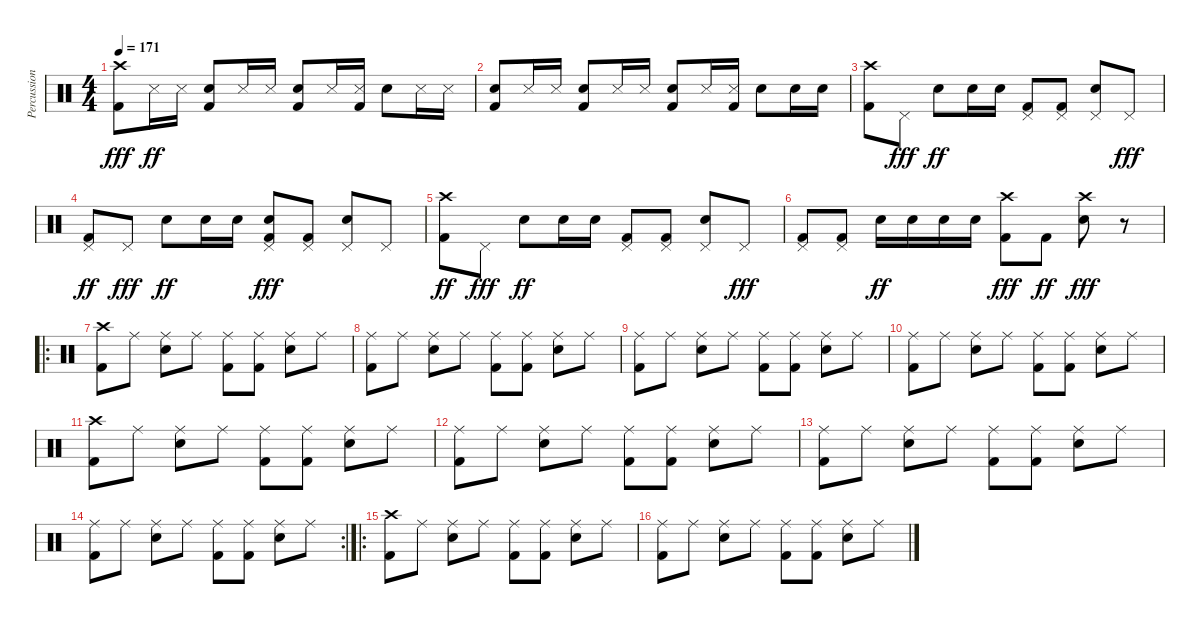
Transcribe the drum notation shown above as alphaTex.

\track ("Percussion" "Percussion") {instrument percussion}
\staff {score}
\articulation defaults
\ts (4 4)
\tempo 171
\clef neutral
\ks c
("Kick (hit) 2" "Crash high (hit)").8{dy fff} "Metronome (hit)".16{dy ff} "Metronome (hit)".16 ("Kick (hit) 2" "Snare (hit) 2").8 "Metronome (hit)".16 "Metronome (hit)".16 ("Kick (hit) 2" "Snare (hit) 2").8 "Metronome (hit)".16 ("Kick (hit) 2" "Metronome (hit)").16 "Snare (hit) 2".8 "Metronome (hit)".16 "Metronome (hit)".16 |
("Kick (hit) 2" "Snare (hit) 2").8 "Metronome (hit)".16 "Metronome (hit)".16 ("Kick (hit) 2" "Snare (hit) 2").8 "Metronome (hit)".16 "Metronome (hit)".16 ("Kick (hit) 2" "Snare (hit) 2").8 "Metronome (hit)".16 ("Kick (hit) 2" "Metronome (hit)").16 "Snare (hit) 2".8 "Snare (hit) 2".16 "Snare (hit) 2".16 |
("Crash high (hit)" "Kick (hit) 2").8 "Pedal Hi-Hat (hit)".8{dy fff} "Snare (hit) 2".8{dy ff} "Snare (hit) 2".16 "Snare (hit) 2".16 ("Pedal Hi-Hat (hit)" "Kick (hit) 2").8 ("Pedal Hi-Hat (hit)" "Kick (hit) 2").8 ("Pedal Hi-Hat (hit)" "Snare (hit) 2").8 "Pedal Hi-Hat (hit)".8{dy fff} |
("Pedal Hi-Hat (hit)" "Kick (hit) 2").8{dy ff} "Pedal Hi-Hat (hit)".8{dy fff} "Snare (hit) 2".8{dy ff} "Snare (hit) 2".16 "Snare (hit) 2".16 ("Snare (hit) 2" "Kick (hit) 2" "Pedal Hi-Hat (hit)").8{dy fff} ("Kick (hit) 2" "Pedal Hi-Hat (hit)").8 ("Snare (hit) 2" "Pedal Hi-Hat (hit)").8 "Pedal Hi-Hat (hit)".8 |
("Crash high (hit)" "Kick (hit) 2").8{dy ff} "Pedal Hi-Hat (hit)".8{dy fff} "Snare (hit) 2".8{dy ff} "Snare (hit) 2".16 "Snare (hit) 2".16 ("Pedal Hi-Hat (hit)" "Kick (hit) 2").8 ("Pedal Hi-Hat (hit)" "Kick (hit) 2").8 ("Pedal Hi-Hat (hit)" "Snare (hit) 2").8 "Pedal Hi-Hat (hit)".8{dy fff} |
("Kick (hit) 2" "Pedal Hi-Hat (hit)").8 ("Kick (hit) 2" "Pedal Hi-Hat (hit)").8 "Snare (hit) 2".16{dy ff} "Snare (hit) 2".16 "Snare (hit) 2".16 "Snare (hit) 2".16 ("Kick (hit) 2" "Crash high (hit)").8{dy fff} "Kick (hit) 2".8{dy ff} ("Snare (hit) 2" "Crash high (hit)").8{dy fff} r.8 |
\ro
("Kick (hit) 2" "Crash high (hit)").8 "Ride (middle)".8 ("Snare (hit) 2" "Ride (middle)").8 "Ride (middle)".8 ("Kick (hit) 2" "Ride (middle)").8 ("Kick (hit) 2" "Ride (middle)").8 ("Snare (hit) 2" "Ride (middle)").8 "Ride (middle)".8 |
("Kick (hit) 2" "Ride (middle)").8 "Ride (middle)".8 ("Snare (hit) 2" "Ride (middle)").8 "Ride (middle)".8 ("Kick (hit) 2" "Ride (middle)").8 ("Kick (hit) 2" "Ride (middle)").8 ("Snare (hit) 2" "Ride (middle)").8 "Ride (middle)".8 |
("Kick (hit) 2" "Ride (middle)").8 "Ride (middle)".8 ("Snare (hit) 2" "Ride (middle)").8 "Ride (middle)".8 ("Kick (hit) 2" "Ride (middle)").8 ("Kick (hit) 2" "Ride (middle)").8 ("Snare (hit) 2" "Ride (middle)").8 "Ride (middle)".8 |
("Kick (hit) 2" "Ride (middle)").8 "Ride (middle)".8 ("Snare (hit) 2" "Ride (middle)").8 "Ride (middle)".8 ("Kick (hit) 2" "Ride (middle)").8 ("Kick (hit) 2" "Ride (middle)").8 ("Snare (hit) 2" "Ride (middle)").8 "Ride (middle)".8 |
("Kick (hit) 2" "Crash high (hit)").8 "Ride (middle)".8 ("Snare (hit) 2" "Ride (middle)").8 "Ride (middle)".8 ("Kick (hit) 2" "Ride (middle)").8 ("Kick (hit) 2" "Ride (middle)").8 ("Snare (hit) 2" "Ride (middle)").8 "Ride (middle)".8 |
("Kick (hit) 2" "Ride (middle)").8 "Ride (middle)".8 ("Snare (hit) 2" "Ride (middle)").8 "Ride (middle)".8 ("Kick (hit) 2" "Ride (middle)").8 ("Kick (hit) 2" "Ride (middle)").8 ("Snare (hit) 2" "Ride (middle)").8 "Ride (middle)".8 |
("Kick (hit) 2" "Ride (middle)").8 "Ride (middle)".8 ("Snare (hit) 2" "Ride (middle)").8 "Ride (middle)".8 ("Kick (hit) 2" "Ride (middle)").8 ("Kick (hit) 2" "Ride (middle)").8 ("Snare (hit) 2" "Ride (middle)").8 "Ride (middle)".8 |
\rc 2
("Kick (hit) 2" "Ride (middle)").8 "Ride (middle)".8 ("Snare (hit) 2" "Ride (middle)").8 "Ride (middle)".8 ("Kick (hit) 2" "Ride (middle)").8 ("Kick (hit) 2" "Ride (middle)").8 ("Snare (hit) 2" "Ride (middle)").8 "Ride (middle)".8 |
\ro
("Kick (hit) 2" "Crash high (hit)").8 "Ride (middle)".8 ("Snare (hit) 2" "Ride (middle)").8 "Ride (middle)".8 ("Kick (hit) 2" "Ride (middle)").8 ("Kick (hit) 2" "Ride (middle)").8 ("Snare (hit) 2" "Ride (middle)").8 "Ride (middle)".8 |
("Kick (hit) 2" "Ride (middle)").8 "Ride (middle)".8 ("Snare (hit) 2" "Ride (middle)").8 "Ride (middle)".8 ("Kick (hit) 2" "Ride (middle)").8 ("Kick (hit) 2" "Ride (middle)").8 ("Snare (hit) 2" "Ride (middle)").8 "Ride (middle)".8
